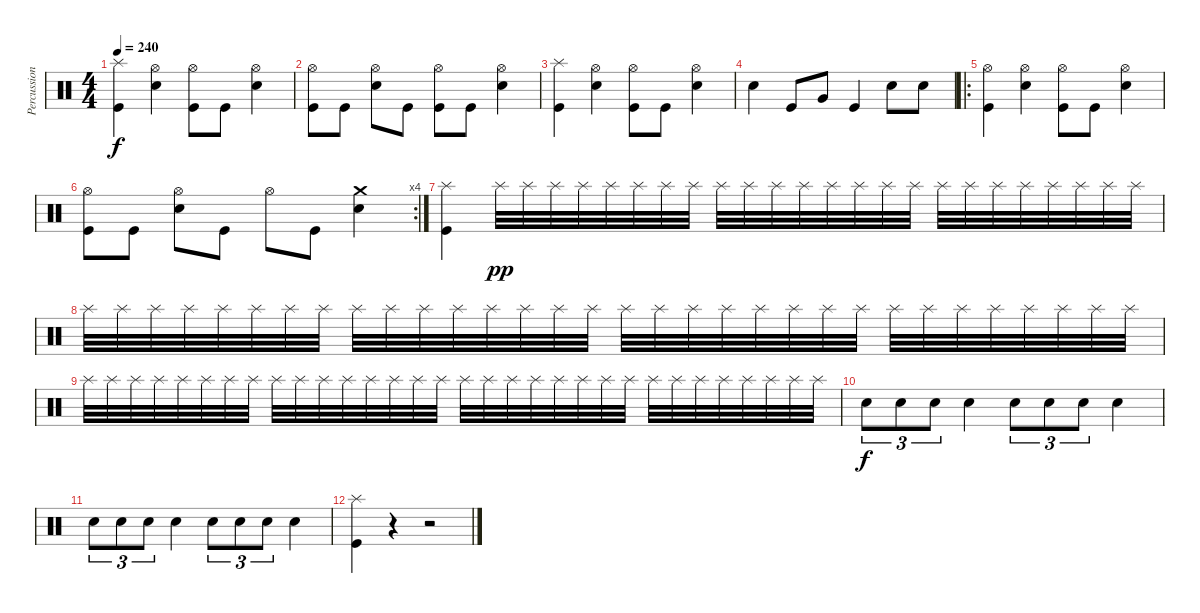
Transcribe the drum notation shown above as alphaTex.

\track ("Percussions" "Percussion") {instrument percussion}
\staff {score}
\articulation defaults
\ts (4 4)
\tempo 240
\clef neutral
\ks c
("Kick (hit)" "Splash (hit)").4{dy f} ("Electric Snare (hit)" "Hi-Hat (open)").4 ("Kick (hit)" "Hi-Hat (open)").8 "Kick (hit)".8 ("Electric Snare (hit)" "Hi-Hat (open)").4 |
("Kick (hit)" "Hi-Hat (open)").8 "Kick (hit)".8 ("Electric Snare (hit)" "Hi-Hat (open)").8 "Kick (hit)".8 ("Kick (hit)" "Hi-Hat (open)").8 "Kick (hit)".8 ("Electric Snare (hit)" "Hi-Hat (open)").4 |
("Kick (hit)" "Splash (hit)").4 ("Electric Snare (hit)" "Hi-Hat (open)").4 ("Kick (hit)" "Hi-Hat (open)").8 "Kick (hit)".8 ("Electric Snare (hit)" "Hi-Hat (open)").4 |
"Electric Snare (hit)".4 "Kick (hit)".8 "Very Low Tom (hit)".8 "Kick (hit)".4 "Electric Snare (hit)".8 "Electric Snare (hit)".8 |
\ro
("Kick (hit)" "Hi-Hat (open)").4 ("Electric Snare (hit)" "Hi-Hat (open)").4 ("Kick (hit)" "Hi-Hat (open)").8 "Kick (hit)".8 ("Electric Snare (hit)" "Hi-Hat (open)").4 |
\rc 4
("Kick (hit)" "Hi-Hat (open)").8 "Kick (hit)".8 ("Electric Snare (hit)" "Hi-Hat (open)").8 "Kick (hit)".8 "Hi-Hat (open)".8 "Kick (hit)".8 ("Electric Snare (hit)" "Crash medium (hit)").4 |
("Kick (hit)" "Splash (hit)").4 "Splash (hit)".32{dy pp} "Splash (hit)".32 "Splash (hit)".32 "Splash (hit)".32 "Splash (hit)".32 "Splash (hit)".32 "Splash (hit)".32 "Splash (hit)".32 "Splash (hit)".32 "Splash (hit)".32 "Splash (hit)".32 "Splash (hit)".32 "Splash (hit)".32 "Splash (hit)".32 "Splash (hit)".32 "Splash (hit)".32 "Splash (hit)".32 "Splash (hit)".32 "Splash (hit)".32 "Splash (hit)".32 "Splash (hit)".32 "Splash (hit)".32 "Splash (hit)".32 "Splash (hit)".32 |
"Splash (hit)".32 "Splash (hit)".32 "Splash (hit)".32 "Splash (hit)".32 "Splash (hit)".32 "Splash (hit)".32 "Splash (hit)".32 "Splash (hit)".32 "Splash (hit)".32 "Splash (hit)".32 "Splash (hit)".32 "Splash (hit)".32 "Splash (hit)".32 "Splash (hit)".32 "Splash (hit)".32 "Splash (hit)".32 "Splash (hit)".32 "Splash (hit)".32 "Splash (hit)".32 "Splash (hit)".32 "Splash (hit)".32 "Splash (hit)".32 "Splash (hit)".32 "Splash (hit)".32 "Splash (hit)".32 "Splash (hit)".32 "Splash (hit)".32 "Splash (hit)".32 "Splash (hit)".32 "Splash (hit)".32 "Splash (hit)".32 "Splash (hit)".32 |
"Splash (hit)".32 "Splash (hit)".32 "Splash (hit)".32 "Splash (hit)".32 "Splash (hit)".32 "Splash (hit)".32 "Splash (hit)".32 "Splash (hit)".32 "Splash (hit)".32 "Splash (hit)".32 "Splash (hit)".32 "Splash (hit)".32 "Splash (hit)".32 "Splash (hit)".32 "Splash (hit)".32 "Splash (hit)".32 "Splash (hit)".32 "Splash (hit)".32 "Splash (hit)".32 "Splash (hit)".32 "Splash (hit)".32 "Splash (hit)".32 "Splash (hit)".32 "Splash (hit)".32 "Splash (hit)".32 "Splash (hit)".32 "Splash (hit)".32 "Splash (hit)".32 "Splash (hit)".32 "Splash (hit)".32 "Splash (hit)".32 "Splash (hit)".32 |
"Electric Snare (hit)".8{tu (3 2) dy f} "Electric Snare (hit)".8{tu (3 2)} "Electric Snare (hit)".8{tu (3 2)} "Electric Snare (hit)".4 "Electric Snare (hit)".8{tu (3 2)} "Electric Snare (hit)".8{tu (3 2)} "Electric Snare (hit)".8{tu (3 2)} "Electric Snare (hit)".4 |
"Electric Snare (hit)".8{tu (3 2)} "Electric Snare (hit)".8{tu (3 2)} "Electric Snare (hit)".8{tu (3 2)} "Electric Snare (hit)".4 "Electric Snare (hit)".8{tu (3 2)} "Electric Snare (hit)".8{tu (3 2)} "Electric Snare (hit)".8{tu (3 2)} "Electric Snare (hit)".4 |
("Kick (hit)" "Splash (hit)").4 r.4 r.2
